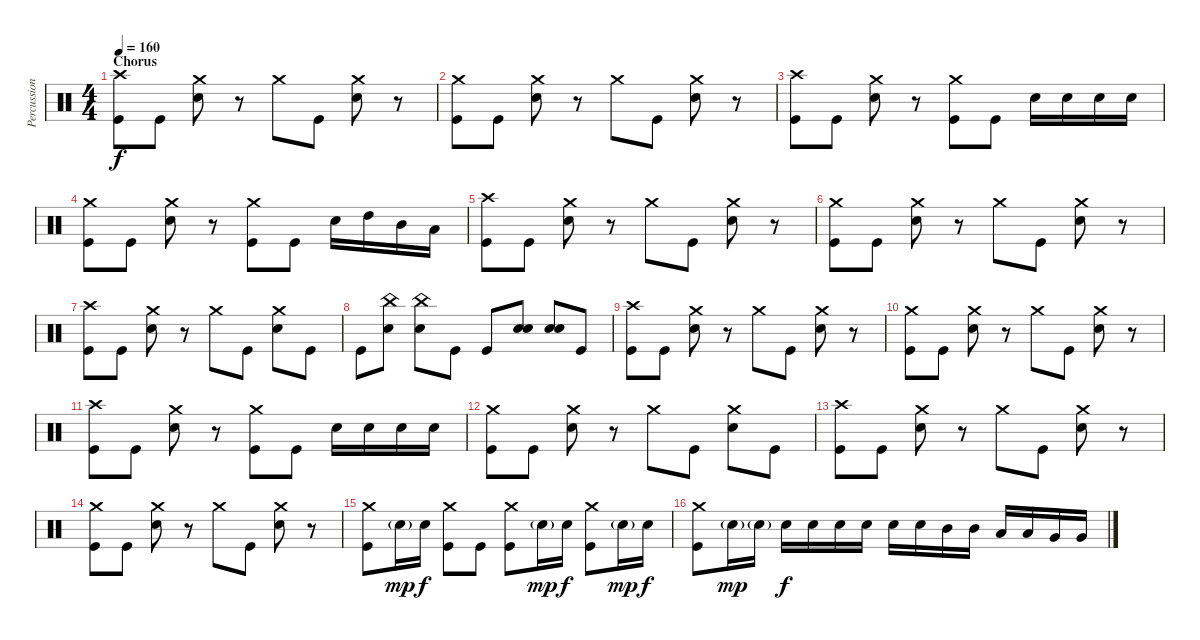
\track ("Percussion" "Percussion") {instrument percussion}
\staff {score}
\articulation defaults
\ts (4 4)
\section ("" "Chorus")
\tempo 160
\clef neutral
\ks c
("Crash high (hit)" "Kick (hit)").8{dy f} "Kick (hit)".8 ("Crash medium (hit)" "Snare (hit) 2").8 r.8 "Crash medium (hit)".8 "Kick (hit)".8 ("Crash medium (hit)" "Snare (hit) 2").8 r.8 |
("Crash medium (hit)" "Kick (hit)").8 "Kick (hit)".8 ("Crash medium (hit)" "Snare (hit) 2").8 r.8 "Crash medium (hit)".8 "Kick (hit)".8 ("Crash medium (hit)" "Snare (hit) 2").8 r.8 |
("Crash high (hit)" "Kick (hit)").8 "Kick (hit)".8 ("Crash medium (hit)" "Snare (hit) 2").8 r.8 ("Crash medium (hit)" "Kick (hit)").8 "Kick (hit)".8 "Snare (hit) 2".16 "Snare (hit) 2".16 "Snare (hit) 2".16 "Snare (hit) 2".16 |
("Crash medium (hit)" "Kick (hit)").8 "Kick (hit)".8 ("Crash medium (hit)" "Snare (hit) 2").8 r.8 ("Crash medium (hit)" "Kick (hit)").8 "Kick (hit)".8 "Snare (hit) 2".16 "High Tom (hit)".16 "Mid Tom (hit)".16 "Low Tom (hit)".16 |
("Crash high (hit)" "Kick (hit)").8 "Kick (hit)".8 ("Crash medium (hit)" "Snare (hit) 2").8 r.8 "Crash medium (hit)".8 "Kick (hit)".8 ("Crash medium (hit)" "Snare (hit) 2").8 r.8 |
("Crash medium (hit)" "Kick (hit)").8 "Kick (hit)".8 ("Crash medium (hit)" "Snare (hit) 2").8 r.8 "Crash medium (hit)".8 "Kick (hit)".8 ("Crash medium (hit)" "Snare (hit) 2").8 r.8 |
("Crash high (hit)" "Kick (hit)").8 "Kick (hit)".8 ("Crash medium (hit)" "Snare (hit) 2").8 r.8 "Crash medium (hit)".8 "Kick (hit)".8 ("Crash medium (hit)" "Snare (hit) 2").8 "Kick (hit)".8 |
"Kick (hit)".8 ("China (hit)" "Snare (hit) 2").8 ("China (hit)" "Snare (hit) 2").8 "Kick (hit)".8 "Kick (hit)".8 ("Snare (hit) 2" "Snare (hit) 2").8{bd 120} ("Snare (hit) 2" "Snare (hit) 2").8{bd 120} "Kick (hit)".8 |
("Crash high (hit)" "Kick (hit)").8 "Kick (hit)".8 ("Crash medium (hit)" "Snare (hit) 2").8 r.8 "Crash medium (hit)".8 "Kick (hit)".8 ("Crash medium (hit)" "Snare (hit) 2").8 r.8 |
("Crash medium (hit)" "Kick (hit)").8 "Kick (hit)".8 ("Crash medium (hit)" "Snare (hit) 2").8 r.8 "Crash medium (hit)".8 "Kick (hit)".8 ("Crash medium (hit)" "Snare (hit) 2").8 r.8 |
("Crash high (hit)" "Kick (hit)").8 "Kick (hit)".8 ("Crash medium (hit)" "Snare (hit) 2").8 r.8 ("Crash medium (hit)" "Kick (hit)").8 "Kick (hit)".8 "Snare (hit) 2".16 "Snare (hit) 2".16 "Snare (hit) 2".16 "Snare (hit) 2".16 |
("Crash medium (hit)" "Kick (hit)").8 "Kick (hit)".8 ("Crash medium (hit)" "Snare (hit) 2").8 r.8 "Crash medium (hit)".8 "Kick (hit)".8 ("Crash medium (hit)" "Snare (hit) 2").8 "Kick (hit)".8 |
("Crash high (hit)" "Kick (hit)").8 "Kick (hit)".8 ("Crash medium (hit)" "Snare (hit) 2").8 r.8 "Crash medium (hit)".8 "Kick (hit)".8 ("Crash medium (hit)" "Snare (hit) 2").8 r.8 |
("Crash medium (hit)" "Kick (hit)").8 "Kick (hit)".8 ("Crash medium (hit)" "Snare (hit) 2").8 r.8 "Crash medium (hit)".8 "Kick (hit)".8 ("Crash medium (hit)" "Snare (hit) 2").8 r.8 |
("Crash medium (hit)" "Kick (hit)").8 "Snare (hit) 2"{g}.16{dy mp} "Snare (hit) 2".16{dy f} ("Crash medium (hit)" "Kick (hit)").8 "Kick (hit)".8 ("Crash medium (hit)" "Kick (hit)").8 "Snare (hit) 2"{g}.16{dy mp} "Snare (hit) 2".16{dy f} ("Crash medium (hit)" "Kick (hit)").8 "Snare (hit) 2"{g}.16{dy mp} "Snare (hit) 2".16{dy f} |
("Crash medium (hit)" "Kick (hit)").8 "Snare (hit) 2"{g}.16{dy mp} "Snare (hit) 2"{g}.16 "Snare (hit) 2".16{dy f} "Snare (hit) 2".16 "Snare (hit) 2".16 "Snare (hit) 2".16 "Snare (hit) 2".16 "Snare (hit) 2".16 "Mid Tom (hit)".16 "Mid Tom (hit)".16 "Low Tom (hit)".16 "Low Tom (hit)".16 "Very Low Tom (hit)".16 "Very Low Tom (hit)".16
